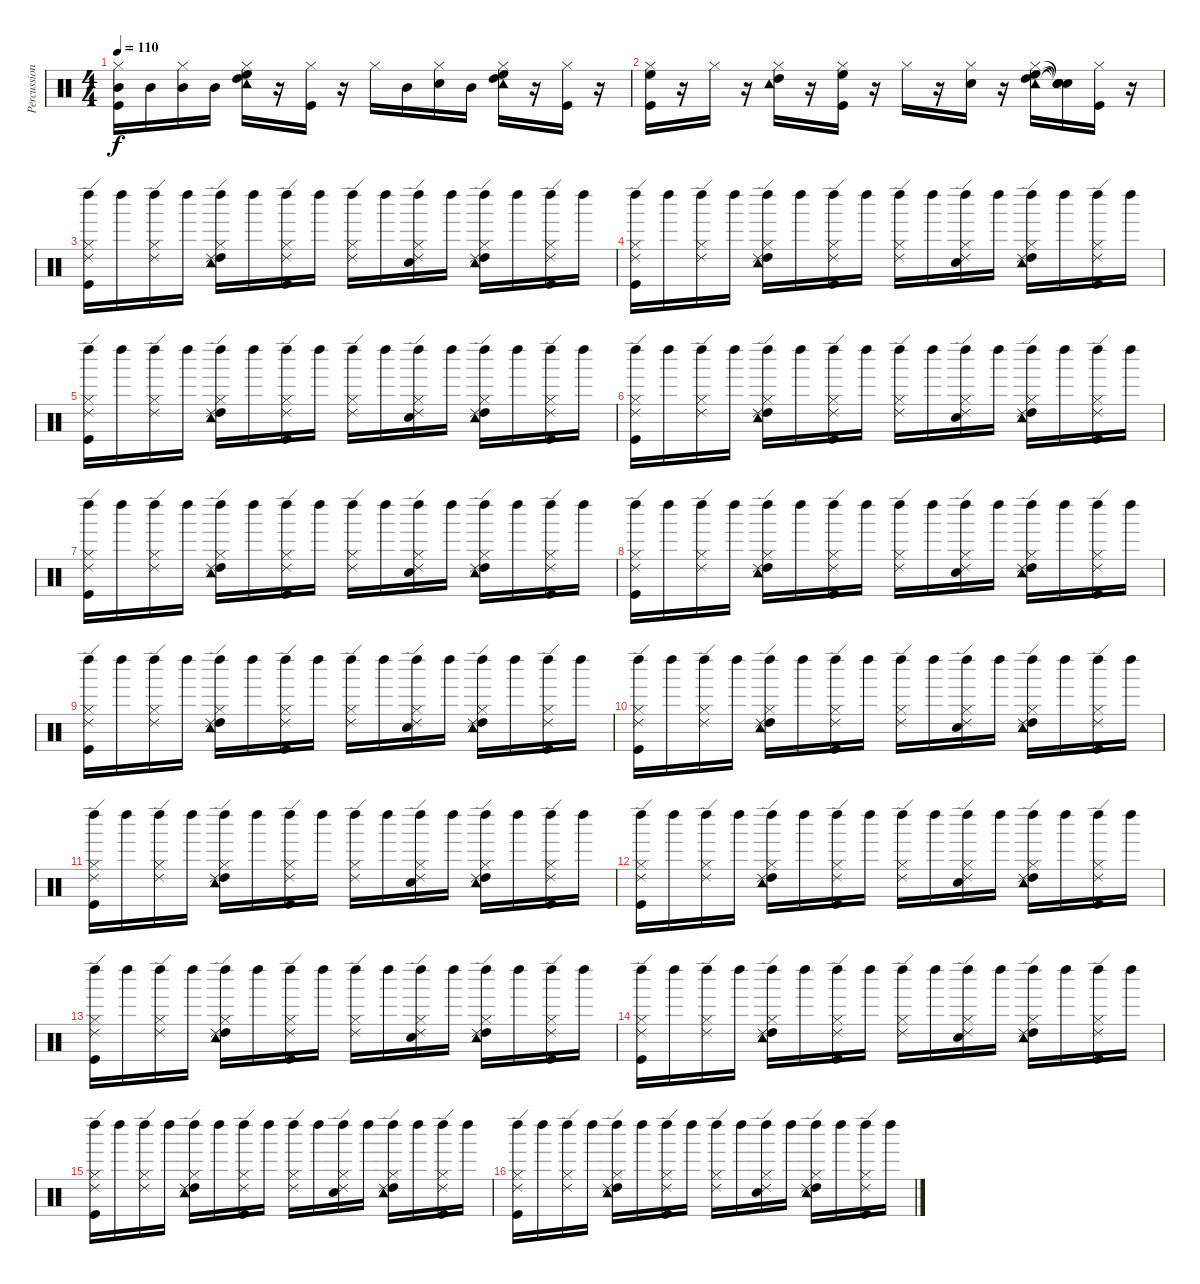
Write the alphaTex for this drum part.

\track ("Percussions" "Percussion") {instrument percussion}
\staff {score}
\articulation defaults
\ts (4 4)
\tempo 110
\clef neutral
\ks c
("Mid Tom (hit)" "Hi-Hat (closed)" "Kick (hit)").16{dy f} "Mid Tom (hit)".16 ("Mid Tom (hit)" "Hi-Hat (closed)").16 "Mid Tom (hit)".16 ("High Floor Tom (hit)" "High Tom (hit)" "Tambourine (hit)" "Hi-Hat (closed)").16 r.16 ("Hi-Hat (closed)" "Kick (hit)").16 r.16 "Hi-Hat (closed)".16 "Mid Tom (hit)".16 ("Electric Snare (hit)" "Hi-Hat (closed)").16 "Mid Tom (hit)".16 ("High Floor Tom (hit)" "High Tom (hit)" "Tambourine (hit)" "Hi-Hat (closed)").16 r.16 ("Hi-Hat (closed)" "Kick (hit)").16 r.16 |
("High Floor Tom (hit)" "Hi-Hat (closed)" "Kick (hit)").16 r.16 "Hi-Hat (closed)".16 r.16 ("High Tom (hit)" "Tambourine (hit)" "Hi-Hat (closed)").16 r.16 ("High Floor Tom (hit)" "Hi-Hat (closed)" "Kick (hit)").16 r.16 "Hi-Hat (closed)".16 r.16 ("Electric Snare (hit)" "Hi-Hat (closed)").16 r.16 ("High Floor Tom (hit)" "High Tom (hit)" "Tambourine (hit)" "Hi-Hat (closed)").16 ("Snare (hit)"{t} "Snare (hit)"{t} "Snare (hit)"{t} "Snare (hit)"{t}).16 ("Hi-Hat (closed)" "Kick (hit)").16 r.16 |
("Left Maraca (hit)" "Hi-Hat (closed)" "Ride (edge) 2" "Kick (hit)").16 "Left Maraca (hit)".16 ("Left Maraca (hit)" "Hi-Hat (closed)" "Ride (edge) 2").16 "Left Maraca (hit)".16 ("Left Maraca (hit)" "High Tom (hit)" "Tambourine (hit)" "Hi-Hat (closed)" "Ride (edge) 2").16 "Left Maraca (hit)".16 ("Left Maraca (hit)" "Hi-Hat (closed)" "Ride (edge) 2" "Kick (hit)").16 "Left Maraca (hit)".16 ("Left Maraca (hit)" "Hi-Hat (closed)" "Ride (edge) 2").16 "Left Maraca (hit)".16 ("Left Maraca (hit)" "Electric Snare (hit)" "Hi-Hat (closed)" "Ride (edge) 2").16 "Left Maraca (hit)".16 ("Left Maraca (hit)" "High Tom (hit)" "Tambourine (hit)" "Hi-Hat (closed)" "Ride (edge) 2").16 "Left Maraca (hit)".16 ("Left Maraca (hit)" "Hi-Hat (closed)" "Ride (edge) 2" "Kick (hit)").16 "Left Maraca (hit)".16 |
("Left Maraca (hit)" "Hi-Hat (closed)" "Ride (edge) 2" "Kick (hit)").16 "Left Maraca (hit)".16 ("Left Maraca (hit)" "Hi-Hat (closed)" "Ride (edge) 2").16 "Left Maraca (hit)".16 ("Left Maraca (hit)" "High Tom (hit)" "Tambourine (hit)" "Hi-Hat (closed)" "Ride (edge) 2").16 "Left Maraca (hit)".16 ("Left Maraca (hit)" "Hi-Hat (closed)" "Ride (edge) 2" "Kick (hit)").16 "Left Maraca (hit)".16 ("Left Maraca (hit)" "Hi-Hat (closed)" "Ride (edge) 2").16 "Left Maraca (hit)".16 ("Left Maraca (hit)" "Electric Snare (hit)" "Hi-Hat (closed)" "Ride (edge) 2").16 "Left Maraca (hit)".16 ("Left Maraca (hit)" "High Tom (hit)" "Tambourine (hit)" "Hi-Hat (closed)" "Ride (edge) 2").16 "Left Maraca (hit)".16 ("Left Maraca (hit)" "Hi-Hat (closed)" "Ride (edge) 2" "Kick (hit)").16 "Left Maraca (hit)".16 |
("Left Maraca (hit)" "Hi-Hat (closed)" "Ride (edge) 2" "Kick (hit)").16 "Left Maraca (hit)".16 ("Left Maraca (hit)" "Hi-Hat (closed)" "Ride (edge) 2").16 "Left Maraca (hit)".16 ("Left Maraca (hit)" "High Tom (hit)" "Tambourine (hit)" "Hi-Hat (closed)" "Ride (edge) 2").16 "Left Maraca (hit)".16 ("Left Maraca (hit)" "Hi-Hat (closed)" "Ride (edge) 2" "Kick (hit)").16 "Left Maraca (hit)".16 ("Left Maraca (hit)" "Hi-Hat (closed)" "Ride (edge) 2").16 "Left Maraca (hit)".16 ("Left Maraca (hit)" "Electric Snare (hit)" "Hi-Hat (closed)" "Ride (edge) 2").16 "Left Maraca (hit)".16 ("Left Maraca (hit)" "High Tom (hit)" "Tambourine (hit)" "Hi-Hat (closed)" "Ride (edge) 2").16 "Left Maraca (hit)".16 ("Left Maraca (hit)" "Hi-Hat (closed)" "Ride (edge) 2" "Kick (hit)").16 "Left Maraca (hit)".16 |
("Left Maraca (hit)" "Hi-Hat (closed)" "Ride (edge) 2" "Kick (hit)").16 "Left Maraca (hit)".16 ("Left Maraca (hit)" "Hi-Hat (closed)" "Ride (edge) 2").16 "Left Maraca (hit)".16 ("Left Maraca (hit)" "High Tom (hit)" "Tambourine (hit)" "Hi-Hat (closed)" "Ride (edge) 2").16 "Left Maraca (hit)".16 ("Left Maraca (hit)" "Hi-Hat (closed)" "Ride (edge) 2" "Kick (hit)").16 "Left Maraca (hit)".16 ("Left Maraca (hit)" "Hi-Hat (closed)" "Ride (edge) 2").16 "Left Maraca (hit)".16 ("Left Maraca (hit)" "Electric Snare (hit)" "Hi-Hat (closed)" "Ride (edge) 2").16 "Left Maraca (hit)".16 ("Left Maraca (hit)" "High Tom (hit)" "Tambourine (hit)" "Hi-Hat (closed)" "Ride (edge) 2").16 "Left Maraca (hit)".16 ("Left Maraca (hit)" "Hi-Hat (closed)" "Ride (edge) 2" "Kick (hit)").16 "Left Maraca (hit)".16 |
("Left Maraca (hit)" "Hi-Hat (closed)" "Ride (edge) 2" "Kick (hit)").16 "Left Maraca (hit)".16 ("Left Maraca (hit)" "Hi-Hat (closed)" "Ride (edge) 2").16 "Left Maraca (hit)".16 ("Left Maraca (hit)" "High Tom (hit)" "Tambourine (hit)" "Hi-Hat (closed)" "Ride (edge) 2").16 "Left Maraca (hit)".16 ("Left Maraca (hit)" "Hi-Hat (closed)" "Ride (edge) 2" "Kick (hit)").16 "Left Maraca (hit)".16 ("Left Maraca (hit)" "Hi-Hat (closed)" "Ride (edge) 2").16 "Left Maraca (hit)".16 ("Left Maraca (hit)" "Electric Snare (hit)" "Hi-Hat (closed)" "Ride (edge) 2").16 "Left Maraca (hit)".16 ("Left Maraca (hit)" "High Tom (hit)" "Tambourine (hit)" "Hi-Hat (closed)" "Ride (edge) 2").16 "Left Maraca (hit)".16 ("Left Maraca (hit)" "Hi-Hat (closed)" "Ride (edge) 2" "Kick (hit)").16 "Left Maraca (hit)".16 |
("Left Maraca (hit)" "Hi-Hat (closed)" "Ride (edge) 2" "Kick (hit)").16 "Left Maraca (hit)".16 ("Left Maraca (hit)" "Hi-Hat (closed)" "Ride (edge) 2").16 "Left Maraca (hit)".16 ("Left Maraca (hit)" "High Tom (hit)" "Tambourine (hit)" "Hi-Hat (closed)" "Ride (edge) 2").16 "Left Maraca (hit)".16 ("Left Maraca (hit)" "Hi-Hat (closed)" "Ride (edge) 2" "Kick (hit)").16 "Left Maraca (hit)".16 ("Left Maraca (hit)" "Hi-Hat (closed)" "Ride (edge) 2").16 "Left Maraca (hit)".16 ("Left Maraca (hit)" "Electric Snare (hit)" "Hi-Hat (closed)" "Ride (edge) 2").16 "Left Maraca (hit)".16 ("Left Maraca (hit)" "High Tom (hit)" "Tambourine (hit)" "Hi-Hat (closed)" "Ride (edge) 2").16 "Left Maraca (hit)".16 ("Left Maraca (hit)" "Hi-Hat (closed)" "Ride (edge) 2" "Kick (hit)").16 "Left Maraca (hit)".16 |
("Left Maraca (hit)" "Hi-Hat (closed)" "Ride (edge) 2" "Kick (hit)").16 "Left Maraca (hit)".16 ("Left Maraca (hit)" "Hi-Hat (closed)" "Ride (edge) 2").16 "Left Maraca (hit)".16 ("Left Maraca (hit)" "High Tom (hit)" "Tambourine (hit)" "Hi-Hat (closed)" "Ride (edge) 2").16 "Left Maraca (hit)".16 ("Left Maraca (hit)" "Hi-Hat (closed)" "Ride (edge) 2" "Kick (hit)").16 "Left Maraca (hit)".16 ("Left Maraca (hit)" "Hi-Hat (closed)" "Ride (edge) 2").16 "Left Maraca (hit)".16 ("Left Maraca (hit)" "Electric Snare (hit)" "Hi-Hat (closed)" "Ride (edge) 2").16 "Left Maraca (hit)".16 ("Left Maraca (hit)" "High Tom (hit)" "Tambourine (hit)" "Hi-Hat (closed)" "Ride (edge) 2").16 "Left Maraca (hit)".16 ("Left Maraca (hit)" "Hi-Hat (closed)" "Ride (edge) 2" "Kick (hit)").16 "Left Maraca (hit)".16 |
("Left Maraca (hit)" "Hi-Hat (closed)" "Ride (edge) 2" "Kick (hit)").16 "Left Maraca (hit)".16 ("Left Maraca (hit)" "Hi-Hat (closed)" "Ride (edge) 2").16 "Left Maraca (hit)".16 ("Left Maraca (hit)" "High Tom (hit)" "Tambourine (hit)" "Hi-Hat (closed)" "Ride (edge) 2").16 "Left Maraca (hit)".16 ("Left Maraca (hit)" "Hi-Hat (closed)" "Ride (edge) 2" "Kick (hit)").16 "Left Maraca (hit)".16 ("Left Maraca (hit)" "Hi-Hat (closed)" "Ride (edge) 2").16 "Left Maraca (hit)".16 ("Left Maraca (hit)" "Electric Snare (hit)" "Hi-Hat (closed)" "Ride (edge) 2").16 "Left Maraca (hit)".16 ("Left Maraca (hit)" "High Tom (hit)" "Tambourine (hit)" "Hi-Hat (closed)" "Ride (edge) 2").16 "Left Maraca (hit)".16 ("Left Maraca (hit)" "Hi-Hat (closed)" "Ride (edge) 2" "Kick (hit)").16 "Left Maraca (hit)".16 |
("Left Maraca (hit)" "Hi-Hat (closed)" "Ride (edge) 2" "Kick (hit)").16 "Left Maraca (hit)".16 ("Left Maraca (hit)" "Hi-Hat (closed)" "Ride (edge) 2").16 "Left Maraca (hit)".16 ("Left Maraca (hit)" "High Tom (hit)" "Tambourine (hit)" "Hi-Hat (closed)" "Ride (edge) 2").16 "Left Maraca (hit)".16 ("Left Maraca (hit)" "Hi-Hat (closed)" "Ride (edge) 2" "Kick (hit)").16 "Left Maraca (hit)".16 ("Left Maraca (hit)" "Hi-Hat (closed)" "Ride (edge) 2").16 "Left Maraca (hit)".16 ("Left Maraca (hit)" "Electric Snare (hit)" "Hi-Hat (closed)" "Ride (edge) 2").16 "Left Maraca (hit)".16 ("Left Maraca (hit)" "High Tom (hit)" "Tambourine (hit)" "Hi-Hat (closed)" "Ride (edge) 2").16 "Left Maraca (hit)".16 ("Left Maraca (hit)" "Hi-Hat (closed)" "Ride (edge) 2" "Kick (hit)").16 "Left Maraca (hit)".16 |
("Left Maraca (hit)" "Hi-Hat (closed)" "Ride (edge) 2" "Kick (hit)").16 "Left Maraca (hit)".16 ("Left Maraca (hit)" "Hi-Hat (closed)" "Ride (edge) 2").16 "Left Maraca (hit)".16 ("Left Maraca (hit)" "High Tom (hit)" "Tambourine (hit)" "Hi-Hat (closed)" "Ride (edge) 2").16 "Left Maraca (hit)".16 ("Left Maraca (hit)" "Hi-Hat (closed)" "Ride (edge) 2" "Kick (hit)").16 "Left Maraca (hit)".16 ("Left Maraca (hit)" "Hi-Hat (closed)" "Ride (edge) 2").16 "Left Maraca (hit)".16 ("Left Maraca (hit)" "Electric Snare (hit)" "Hi-Hat (closed)" "Ride (edge) 2").16 "Left Maraca (hit)".16 ("Left Maraca (hit)" "High Tom (hit)" "Tambourine (hit)" "Hi-Hat (closed)" "Ride (edge) 2").16 "Left Maraca (hit)".16 ("Left Maraca (hit)" "Hi-Hat (closed)" "Ride (edge) 2" "Kick (hit)").16 "Left Maraca (hit)".16 |
("Left Maraca (hit)" "Hi-Hat (closed)" "Ride (edge) 2" "Kick (hit)").16 "Left Maraca (hit)".16 ("Left Maraca (hit)" "Hi-Hat (closed)" "Ride (edge) 2").16 "Left Maraca (hit)".16 ("Left Maraca (hit)" "High Tom (hit)" "Tambourine (hit)" "Hi-Hat (closed)" "Ride (edge) 2").16 "Left Maraca (hit)".16 ("Left Maraca (hit)" "Hi-Hat (closed)" "Ride (edge) 2" "Kick (hit)").16 "Left Maraca (hit)".16 ("Left Maraca (hit)" "Hi-Hat (closed)" "Ride (edge) 2").16 "Left Maraca (hit)".16 ("Left Maraca (hit)" "Electric Snare (hit)" "Hi-Hat (closed)" "Ride (edge) 2").16 "Left Maraca (hit)".16 ("Left Maraca (hit)" "High Tom (hit)" "Tambourine (hit)" "Hi-Hat (closed)" "Ride (edge) 2").16 "Left Maraca (hit)".16 ("Left Maraca (hit)" "Hi-Hat (closed)" "Ride (edge) 2" "Kick (hit)").16 "Left Maraca (hit)".16 |
("Left Maraca (hit)" "Hi-Hat (closed)" "Ride (edge) 2" "Kick (hit)").16 "Left Maraca (hit)".16 ("Left Maraca (hit)" "Hi-Hat (closed)" "Ride (edge) 2").16 "Left Maraca (hit)".16 ("Left Maraca (hit)" "High Tom (hit)" "Tambourine (hit)" "Hi-Hat (closed)" "Ride (edge) 2").16 "Left Maraca (hit)".16 ("Left Maraca (hit)" "Hi-Hat (closed)" "Ride (edge) 2" "Kick (hit)").16 "Left Maraca (hit)".16 ("Left Maraca (hit)" "Hi-Hat (closed)" "Ride (edge) 2").16 "Left Maraca (hit)".16 ("Left Maraca (hit)" "Electric Snare (hit)" "Hi-Hat (closed)" "Ride (edge) 2").16 "Left Maraca (hit)".16 ("Left Maraca (hit)" "High Tom (hit)" "Tambourine (hit)" "Hi-Hat (closed)" "Ride (edge) 2").16 "Left Maraca (hit)".16 ("Left Maraca (hit)" "Hi-Hat (closed)" "Ride (edge) 2" "Kick (hit)").16 "Left Maraca (hit)".16 |
("Left Maraca (hit)" "Hi-Hat (closed)" "Ride (edge) 2" "Kick (hit)").16 "Left Maraca (hit)".16 ("Left Maraca (hit)" "Hi-Hat (closed)" "Ride (edge) 2").16 "Left Maraca (hit)".16 ("Left Maraca (hit)" "High Tom (hit)" "Tambourine (hit)" "Hi-Hat (closed)" "Ride (edge) 2").16 "Left Maraca (hit)".16 ("Left Maraca (hit)" "Hi-Hat (closed)" "Ride (edge) 2" "Kick (hit)").16 "Left Maraca (hit)".16 ("Left Maraca (hit)" "Hi-Hat (closed)" "Ride (edge) 2").16 "Left Maraca (hit)".16 ("Left Maraca (hit)" "Electric Snare (hit)" "Hi-Hat (closed)" "Ride (edge) 2").16 "Left Maraca (hit)".16 ("Left Maraca (hit)" "High Tom (hit)" "Tambourine (hit)" "Hi-Hat (closed)" "Ride (edge) 2").16 "Left Maraca (hit)".16 ("Left Maraca (hit)" "Hi-Hat (closed)" "Ride (edge) 2" "Kick (hit)").16 "Left Maraca (hit)".16 |
("Left Maraca (hit)" "Hi-Hat (closed)" "Ride (edge) 2" "Kick (hit)").16 "Left Maraca (hit)".16 ("Left Maraca (hit)" "Hi-Hat (closed)" "Ride (edge) 2").16 "Left Maraca (hit)".16 ("Left Maraca (hit)" "High Tom (hit)" "Tambourine (hit)" "Hi-Hat (closed)" "Ride (edge) 2").16 "Left Maraca (hit)".16 ("Left Maraca (hit)" "Hi-Hat (closed)" "Ride (edge) 2" "Kick (hit)").16 "Left Maraca (hit)".16 ("Left Maraca (hit)" "Hi-Hat (closed)" "Ride (edge) 2").16 "Left Maraca (hit)".16 ("Left Maraca (hit)" "Electric Snare (hit)" "Hi-Hat (closed)" "Ride (edge) 2").16 "Left Maraca (hit)".16 ("Left Maraca (hit)" "High Tom (hit)" "Tambourine (hit)" "Hi-Hat (closed)" "Ride (edge) 2").16 "Left Maraca (hit)".16 ("Left Maraca (hit)" "Hi-Hat (closed)" "Ride (edge) 2" "Kick (hit)").16 "Left Maraca (hit)".16
